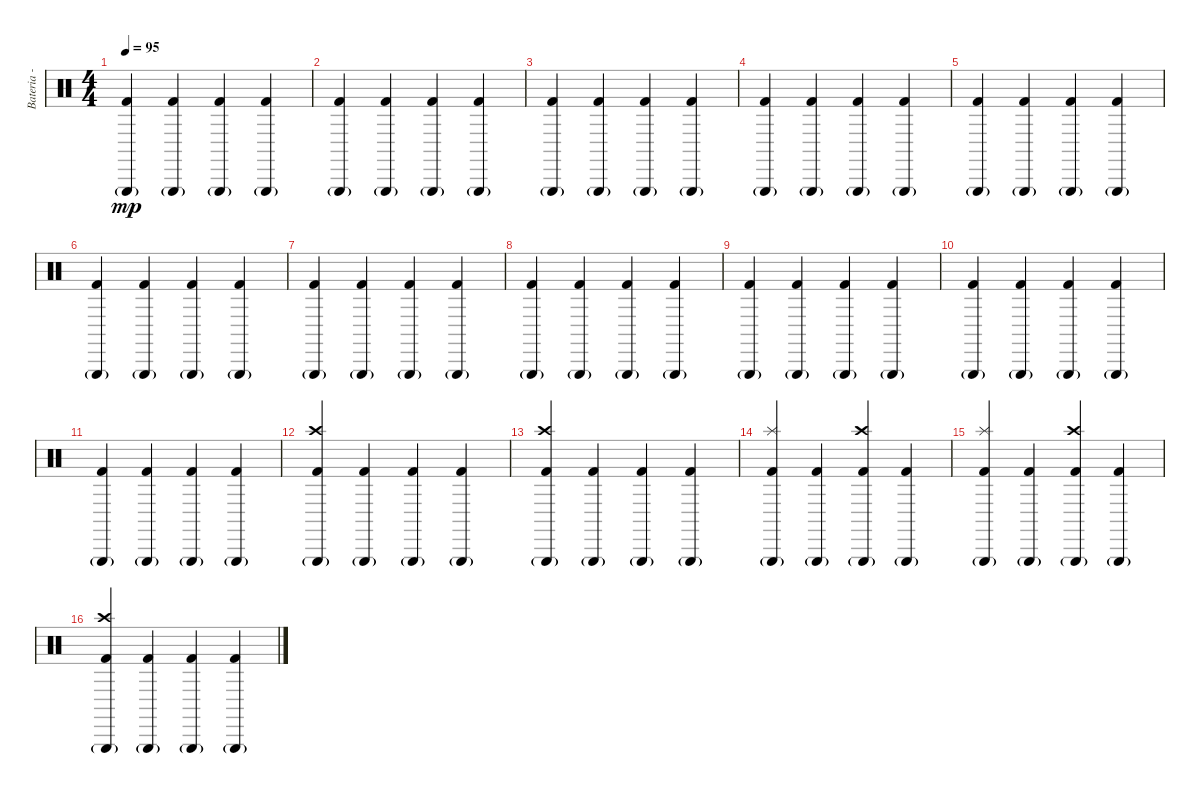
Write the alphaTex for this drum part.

\track ("Bateria - Alfonso André" "Bateria - ") {instrument percussion}
\staff {score}
\articulation defaults
\ts (4 4)
\tempo 95
\clef neutral
\ks c
("Triangle (hit)"{g} "Kick (hit) 2").4{dy mp} ("Triangle (hit)"{g} "Kick (hit) 2").4 ("Triangle (hit)"{g} "Kick (hit) 2").4 ("Triangle (hit)"{g} "Kick (hit) 2").4 |
("Triangle (hit)"{g} "Kick (hit) 2").4 ("Triangle (hit)"{g} "Kick (hit) 2").4 ("Triangle (hit)"{g} "Kick (hit) 2").4 ("Triangle (hit)"{g} "Kick (hit) 2").4 |
("Triangle (hit)"{g} "Kick (hit) 2").4 ("Triangle (hit)"{g} "Kick (hit) 2").4 ("Triangle (hit)"{g} "Kick (hit) 2").4 ("Triangle (hit)"{g} "Kick (hit) 2").4 |
("Triangle (hit)"{g} "Kick (hit) 2").4 ("Triangle (hit)"{g} "Kick (hit) 2").4 ("Triangle (hit)"{g} "Kick (hit) 2").4 ("Triangle (hit)"{g} "Kick (hit) 2").4 |
("Triangle (hit)"{g} "Kick (hit) 2").4 ("Triangle (hit)"{g} "Kick (hit) 2").4 ("Triangle (hit)"{g} "Kick (hit) 2").4 ("Triangle (hit)"{g} "Kick (hit) 2").4 |
("Triangle (hit)"{g} "Kick (hit) 2").4 ("Triangle (hit)"{g} "Kick (hit) 2").4 ("Triangle (hit)"{g} "Kick (hit) 2").4 ("Triangle (hit)"{g} "Kick (hit) 2").4 |
("Triangle (hit)"{g} "Kick (hit) 2").4 ("Triangle (hit)"{g} "Kick (hit) 2").4 ("Triangle (hit)"{g} "Kick (hit) 2").4 ("Triangle (hit)"{g} "Kick (hit) 2").4 |
("Triangle (hit)"{g} "Kick (hit) 2").4 ("Triangle (hit)"{g} "Kick (hit) 2").4 ("Triangle (hit)"{g} "Kick (hit) 2").4 ("Triangle (hit)"{g} "Kick (hit) 2").4 |
("Triangle (hit)"{g} "Kick (hit) 2").4 ("Triangle (hit)"{g} "Kick (hit) 2").4 ("Triangle (hit)"{g} "Kick (hit) 2").4 ("Triangle (hit)"{g} "Kick (hit) 2").4 |
("Triangle (hit)"{g} "Kick (hit) 2").4 ("Triangle (hit)"{g} "Kick (hit) 2").4 ("Triangle (hit)"{g} "Kick (hit) 2").4 ("Triangle (hit)"{g} "Kick (hit) 2").4 |
("Triangle (hit)"{g} "Kick (hit) 2").4 ("Triangle (hit)"{g} "Kick (hit) 2").4 ("Triangle (hit)"{g} "Kick (hit) 2").4 ("Triangle (hit)"{g} "Kick (hit) 2").4 |
("Triangle (hit)"{g} "Kick (hit) 2" "Crash high (hit)").4 ("Triangle (hit)"{g} "Kick (hit) 2").4 ("Triangle (hit)"{g} "Kick (hit) 2").4 ("Triangle (hit)"{g} "Kick (hit) 2").4 |
("Triangle (hit)"{g} "Kick (hit) 2" "Crash high (hit)").4 ("Triangle (hit)"{g} "Kick (hit) 2").4 ("Triangle (hit)"{g} "Kick (hit) 2").4 ("Triangle (hit)"{g} "Kick (hit) 2").4 |
("Triangle (hit)"{g} "Kick (hit) 2" "Splash (hit)").4 ("Triangle (hit)"{g} "Kick (hit) 2").4 ("Triangle (hit)"{g} "Kick (hit) 2" "Crash high (hit)").4 ("Triangle (hit)"{g} "Kick (hit) 2").4 |
("Triangle (hit)"{g} "Kick (hit) 2" "Splash (hit)").4 ("Triangle (hit)"{g} "Kick (hit) 2").4 ("Triangle (hit)"{g} "Kick (hit) 2" "Crash high (hit)").4 ("Triangle (hit)"{g} "Kick (hit) 2").4 |
("Triangle (hit)"{g} "Kick (hit) 2" "Crash high (hit)").4 ("Triangle (hit)"{g} "Kick (hit) 2").4 ("Triangle (hit)"{g} "Kick (hit) 2").4 ("Triangle (hit)"{g} "Kick (hit) 2").4
